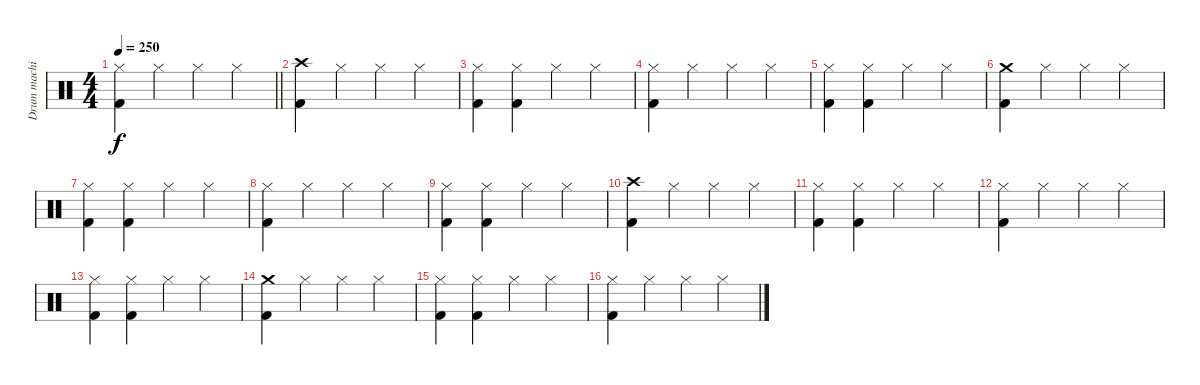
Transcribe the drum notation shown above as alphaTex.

\track ("Drum machine" "Drum machi") {instrument percussion}
\staff {score}
\articulation defaults
\ts (4 4)
\tempo 250
\clef neutral
\barLineRight lightlight
\ks c
("Hi-Hat (closed)" "Kick (hit) 2").4{dy f} "Hi-Hat (closed)".4 "Hi-Hat (closed)".4 "Hi-Hat (closed)".4 |
("Crash high (hit)" "Kick (hit) 2").4 "Hi-Hat (closed)".4 "Hi-Hat (closed)".4 "Hi-Hat (closed)".4 |
("Hi-Hat (closed)" "Kick (hit) 2").4 ("Hi-Hat (closed)" "Kick (hit) 2").4 "Hi-Hat (closed)".4 "Hi-Hat (closed)".4 |
("Hi-Hat (closed)" "Kick (hit) 2").4 "Hi-Hat (closed)".4 "Hi-Hat (closed)".4 "Hi-Hat (closed)".4 |
("Hi-Hat (closed)" "Kick (hit) 2").4 ("Hi-Hat (closed)" "Kick (hit) 2").4 "Hi-Hat (closed)".4 "Hi-Hat (closed)".4 |
("Crash medium (hit)" "Kick (hit) 2").4 "Hi-Hat (closed)".4 "Hi-Hat (closed)".4 "Hi-Hat (closed)".4 |
("Hi-Hat (closed)" "Kick (hit) 2").4 ("Hi-Hat (closed)" "Kick (hit) 2").4 "Hi-Hat (closed)".4 "Hi-Hat (closed)".4 |
("Hi-Hat (closed)" "Kick (hit) 2").4 "Hi-Hat (closed)".4 "Hi-Hat (closed)".4 "Hi-Hat (closed)".4 |
("Hi-Hat (closed)" "Kick (hit) 2").4 ("Hi-Hat (closed)" "Kick (hit) 2").4 "Hi-Hat (closed)".4 "Hi-Hat (closed)".4 |
("Crash high (hit)" "Kick (hit) 2").4 "Hi-Hat (closed)".4 "Hi-Hat (closed)".4 "Hi-Hat (closed)".4 |
("Hi-Hat (closed)" "Kick (hit) 2").4 ("Hi-Hat (closed)" "Kick (hit) 2").4 "Hi-Hat (closed)".4 "Hi-Hat (closed)".4 |
("Hi-Hat (closed)" "Kick (hit) 2").4 "Hi-Hat (closed)".4 "Hi-Hat (closed)".4 "Hi-Hat (closed)".4 |
("Hi-Hat (closed)" "Kick (hit) 2").4 ("Hi-Hat (closed)" "Kick (hit) 2").4 "Hi-Hat (closed)".4 "Hi-Hat (closed)".4 |
("Crash medium (hit)" "Kick (hit) 2").4 "Hi-Hat (closed)".4 "Hi-Hat (closed)".4 "Hi-Hat (closed)".4 |
("Hi-Hat (closed)" "Kick (hit) 2").4 ("Hi-Hat (closed)" "Kick (hit) 2").4 "Hi-Hat (closed)".4 "Hi-Hat (closed)".4 |
("Hi-Hat (closed)" "Kick (hit) 2").4 "Hi-Hat (closed)".4 "Hi-Hat (closed)".4 "Hi-Hat (closed)".4
